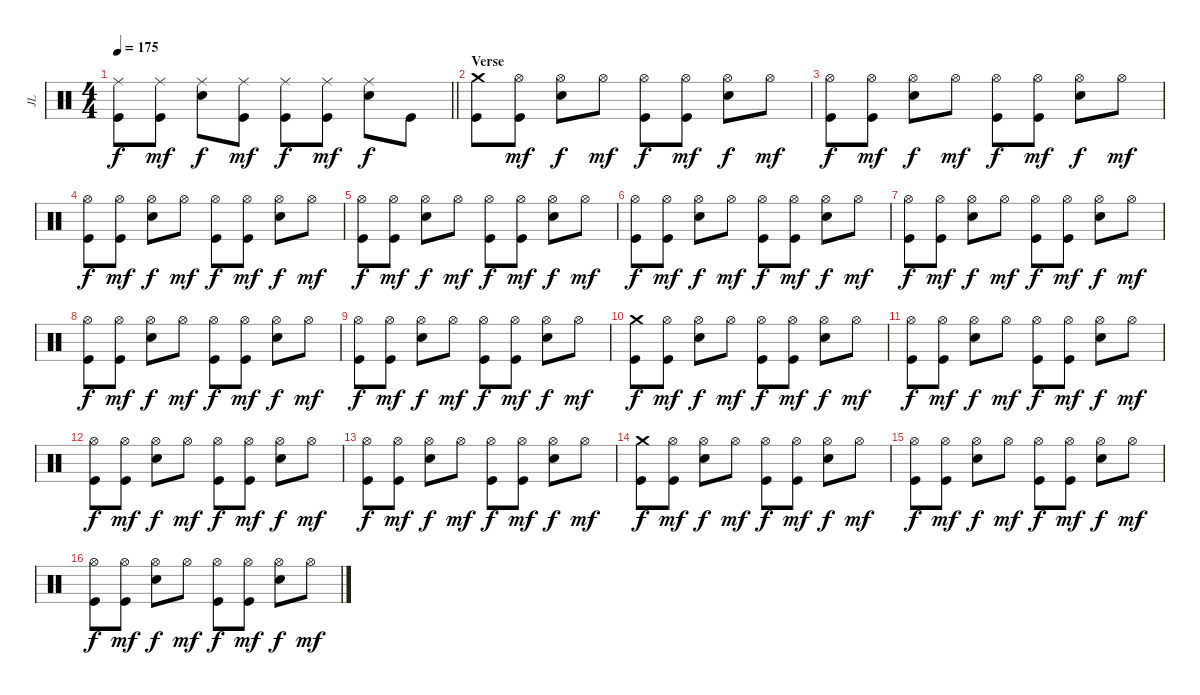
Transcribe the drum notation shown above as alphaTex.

\track ("JL" "JL") {instrument percussion}
\staff {score}
\articulation defaults
\ts (4 4)
\tempo 175
\clef neutral
\barLineRight lightlight
\ks c
("Ride (middle)" "Kick (hit)").8{dy f} ("Ride (middle)" "Kick (hit)").8{dy mf} ("Ride (middle)" "Electric Snare (hit)").8{dy f} ("Ride (middle)" "Kick (hit)").8{dy mf} ("Ride (middle)" "Kick (hit)").8{dy f} ("Ride (middle)" "Kick (hit)").8{dy mf} ("Ride (middle)" "Electric Snare (hit)").8{dy f} "Kick (hit)".8 |
\section ("" "Verse")
("Crash medium (hit)" "Kick (hit)").8 ("Hi-Hat (open)" "Kick (hit)").8{dy mf} ("Hi-Hat (open)" "Electric Snare (hit)").8{dy f} "Hi-Hat (open)".8{dy mf} ("Hi-Hat (open)" "Kick (hit)").8{dy f} ("Hi-Hat (open)" "Kick (hit)").8{dy mf} ("Hi-Hat (open)" "Electric Snare (hit)").8{dy f} "Hi-Hat (open)".8{dy mf} |
("Hi-Hat (open)" "Kick (hit)").8{dy f} ("Hi-Hat (open)" "Kick (hit)").8{dy mf} ("Hi-Hat (open)" "Electric Snare (hit)").8{dy f} "Hi-Hat (open)".8{dy mf} ("Hi-Hat (open)" "Kick (hit)").8{dy f} ("Hi-Hat (open)" "Kick (hit)").8{dy mf} ("Hi-Hat (open)" "Electric Snare (hit)").8{dy f} "Hi-Hat (open)".8{dy mf} |
("Hi-Hat (open)" "Kick (hit)").8{dy f} ("Hi-Hat (open)" "Kick (hit)").8{dy mf} ("Hi-Hat (open)" "Electric Snare (hit)").8{dy f} "Hi-Hat (open)".8{dy mf} ("Hi-Hat (open)" "Kick (hit)").8{dy f} ("Hi-Hat (open)" "Kick (hit)").8{dy mf} ("Hi-Hat (open)" "Electric Snare (hit)").8{dy f} "Hi-Hat (open)".8{dy mf} |
("Hi-Hat (open)" "Kick (hit)").8{dy f} ("Hi-Hat (open)" "Kick (hit)").8{dy mf} ("Hi-Hat (open)" "Electric Snare (hit)").8{dy f} "Hi-Hat (open)".8{dy mf} ("Hi-Hat (open)" "Kick (hit)").8{dy f} ("Hi-Hat (open)" "Kick (hit)").8{dy mf} ("Hi-Hat (open)" "Electric Snare (hit)").8{dy f} "Hi-Hat (open)".8{dy mf} |
("Hi-Hat (open)" "Kick (hit)").8{dy f} ("Hi-Hat (open)" "Kick (hit)").8{dy mf} ("Hi-Hat (open)" "Electric Snare (hit)").8{dy f} "Hi-Hat (open)".8{dy mf} ("Hi-Hat (open)" "Kick (hit)").8{dy f} ("Hi-Hat (open)" "Kick (hit)").8{dy mf} ("Hi-Hat (open)" "Electric Snare (hit)").8{dy f} "Hi-Hat (open)".8{dy mf} |
("Hi-Hat (open)" "Kick (hit)").8{dy f} ("Hi-Hat (open)" "Kick (hit)").8{dy mf} ("Hi-Hat (open)" "Electric Snare (hit)").8{dy f} "Hi-Hat (open)".8{dy mf} ("Hi-Hat (open)" "Kick (hit)").8{dy f} ("Hi-Hat (open)" "Kick (hit)").8{dy mf} ("Hi-Hat (open)" "Electric Snare (hit)").8{dy f} "Hi-Hat (open)".8{dy mf} |
("Hi-Hat (open)" "Kick (hit)").8{dy f} ("Hi-Hat (open)" "Kick (hit)").8{dy mf} ("Hi-Hat (open)" "Electric Snare (hit)").8{dy f} "Hi-Hat (open)".8{dy mf} ("Hi-Hat (open)" "Kick (hit)").8{dy f} ("Hi-Hat (open)" "Kick (hit)").8{dy mf} ("Hi-Hat (open)" "Electric Snare (hit)").8{dy f} "Hi-Hat (open)".8{dy mf} |
("Hi-Hat (open)" "Kick (hit)").8{dy f} ("Hi-Hat (open)" "Kick (hit)").8{dy mf} ("Hi-Hat (open)" "Electric Snare (hit)").8{dy f} "Hi-Hat (open)".8{dy mf} ("Hi-Hat (open)" "Kick (hit)").8{dy f} ("Hi-Hat (open)" "Kick (hit)").8{dy mf} ("Hi-Hat (open)" "Electric Snare (hit)").8{dy f} "Hi-Hat (open)".8{dy mf} |
("Crash medium (hit)" "Kick (hit)").8{dy f} ("Hi-Hat (open)" "Kick (hit)").8{dy mf} ("Hi-Hat (open)" "Electric Snare (hit)").8{dy f} "Hi-Hat (open)".8{dy mf} ("Hi-Hat (open)" "Kick (hit)").8{dy f} ("Hi-Hat (open)" "Kick (hit)").8{dy mf} ("Hi-Hat (open)" "Electric Snare (hit)").8{dy f} "Hi-Hat (open)".8{dy mf} |
("Hi-Hat (open)" "Kick (hit)").8{dy f} ("Hi-Hat (open)" "Kick (hit)").8{dy mf} ("Hi-Hat (open)" "Electric Snare (hit)").8{dy f} "Hi-Hat (open)".8{dy mf} ("Hi-Hat (open)" "Kick (hit)").8{dy f} ("Hi-Hat (open)" "Kick (hit)").8{dy mf} ("Hi-Hat (open)" "Electric Snare (hit)").8{dy f} "Hi-Hat (open)".8{dy mf} |
("Hi-Hat (open)" "Kick (hit)").8{dy f} ("Hi-Hat (open)" "Kick (hit)").8{dy mf} ("Hi-Hat (open)" "Electric Snare (hit)").8{dy f} "Hi-Hat (open)".8{dy mf} ("Hi-Hat (open)" "Kick (hit)").8{dy f} ("Hi-Hat (open)" "Kick (hit)").8{dy mf} ("Hi-Hat (open)" "Electric Snare (hit)").8{dy f} "Hi-Hat (open)".8{dy mf} |
("Hi-Hat (open)" "Kick (hit)").8{dy f} ("Hi-Hat (open)" "Kick (hit)").8{dy mf} ("Hi-Hat (open)" "Electric Snare (hit)").8{dy f} "Hi-Hat (open)".8{dy mf} ("Hi-Hat (open)" "Kick (hit)").8{dy f} ("Hi-Hat (open)" "Kick (hit)").8{dy mf} ("Hi-Hat (open)" "Electric Snare (hit)").8{dy f} "Hi-Hat (open)".8{dy mf} |
("Crash medium (hit)" "Kick (hit)").8{dy f} ("Hi-Hat (open)" "Kick (hit)").8{dy mf} ("Hi-Hat (open)" "Electric Snare (hit)").8{dy f} "Hi-Hat (open)".8{dy mf} ("Hi-Hat (open)" "Kick (hit)").8{dy f} ("Hi-Hat (open)" "Kick (hit)").8{dy mf} ("Hi-Hat (open)" "Electric Snare (hit)").8{dy f} "Hi-Hat (open)".8{dy mf} |
("Hi-Hat (open)" "Kick (hit)").8{dy f} ("Hi-Hat (open)" "Kick (hit)").8{dy mf} ("Hi-Hat (open)" "Electric Snare (hit)").8{dy f} "Hi-Hat (open)".8{dy mf} ("Hi-Hat (open)" "Kick (hit)").8{dy f} ("Hi-Hat (open)" "Kick (hit)").8{dy mf} ("Hi-Hat (open)" "Electric Snare (hit)").8{dy f} "Hi-Hat (open)".8{dy mf} |
("Hi-Hat (open)" "Kick (hit)").8{dy f} ("Hi-Hat (open)" "Kick (hit)").8{dy mf} ("Hi-Hat (open)" "Electric Snare (hit)").8{dy f} "Hi-Hat (open)".8{dy mf} ("Hi-Hat (open)" "Kick (hit)").8{dy f} ("Hi-Hat (open)" "Kick (hit)").8{dy mf} ("Hi-Hat (open)" "Electric Snare (hit)").8{dy f} "Hi-Hat (open)".8{dy mf}
